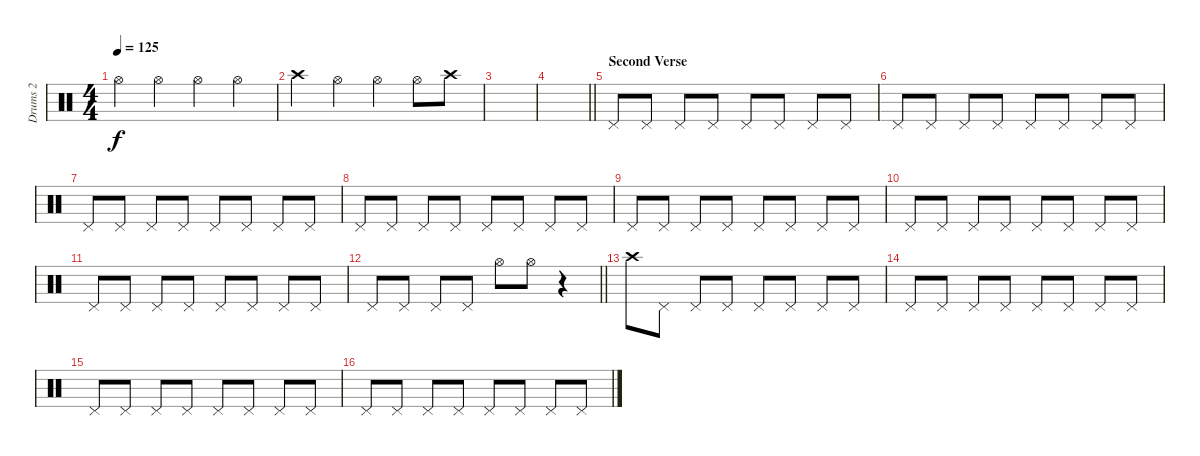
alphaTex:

\track ("Drums 2" "Drums 2") {instrument percussion}
\staff {score}
\articulation defaults
\ts (4 4)
\tempo 125
\clef neutral
\ks c "Hi-Hat (open)".4{dy f} "Hi-Hat (open)".4 "Hi-Hat (open)".4 "Hi-Hat (open)".4
|
"Crash high (hit)".4 "Hi-Hat (open)".4 "Hi-Hat (open)".4 "Hi-Hat (open)".8 "Crash high (hit)".8 |
|
\barLineRight lightlight
|
\section ("" "Second Verse")
"Pedal Hi-Hat (hit)".8 "Pedal Hi-Hat (hit)".8 "Pedal Hi-Hat (hit)".8 "Pedal Hi-Hat (hit)".8 "Pedal Hi-Hat (hit)".8 "Pedal Hi-Hat (hit)".8 "Pedal Hi-Hat (hit)".8 "Pedal Hi-Hat (hit)".8 |
"Pedal Hi-Hat (hit)".8 "Pedal Hi-Hat (hit)".8 "Pedal Hi-Hat (hit)".8 "Pedal Hi-Hat (hit)".8 "Pedal Hi-Hat (hit)".8 "Pedal Hi-Hat (hit)".8 "Pedal Hi-Hat (hit)".8 "Pedal Hi-Hat (hit)".8 |
"Pedal Hi-Hat (hit)".8 "Pedal Hi-Hat (hit)".8 "Pedal Hi-Hat (hit)".8 "Pedal Hi-Hat (hit)".8 "Pedal Hi-Hat (hit)".8 "Pedal Hi-Hat (hit)".8 "Pedal Hi-Hat (hit)".8 "Pedal Hi-Hat (hit)".8 |
"Pedal Hi-Hat (hit)".8 "Pedal Hi-Hat (hit)".8 "Pedal Hi-Hat (hit)".8 "Pedal Hi-Hat (hit)".8 "Pedal Hi-Hat (hit)".8 "Pedal Hi-Hat (hit)".8 "Pedal Hi-Hat (hit)".8 "Pedal Hi-Hat (hit)".8 |
"Pedal Hi-Hat (hit)".8 "Pedal Hi-Hat (hit)".8 "Pedal Hi-Hat (hit)".8 "Pedal Hi-Hat (hit)".8 "Pedal Hi-Hat (hit)".8 "Pedal Hi-Hat (hit)".8 "Pedal Hi-Hat (hit)".8 "Pedal Hi-Hat (hit)".8 |
"Pedal Hi-Hat (hit)".8 "Pedal Hi-Hat (hit)".8 "Pedal Hi-Hat (hit)".8 "Pedal Hi-Hat (hit)".8 "Pedal Hi-Hat (hit)".8 "Pedal Hi-Hat (hit)".8 "Pedal Hi-Hat (hit)".8 "Pedal Hi-Hat (hit)".8 |
"Pedal Hi-Hat (hit)".8 "Pedal Hi-Hat (hit)".8 "Pedal Hi-Hat (hit)".8 "Pedal Hi-Hat (hit)".8 "Pedal Hi-Hat (hit)".8 "Pedal Hi-Hat (hit)".8 "Pedal Hi-Hat (hit)".8 "Pedal Hi-Hat (hit)".8 |
\barLineRight lightlight "Pedal Hi-Hat (hit)".8 "Pedal Hi-Hat (hit)".8 "Pedal Hi-Hat (hit)".8 "Pedal Hi-Hat (hit)".8 "Hi-Hat (open)".8 "Hi-Hat (open)".8
r.4 |
"Crash high (hit)".8 "Pedal Hi-Hat (hit)".8 "Pedal Hi-Hat (hit)".8 "Pedal Hi-Hat (hit)".8 "Pedal Hi-Hat (hit)".8 "Pedal Hi-Hat (hit)".8 "Pedal Hi-Hat (hit)".8 "Pedal Hi-Hat (hit)".8 |
"Pedal Hi-Hat (hit)".8 "Pedal Hi-Hat (hit)".8 "Pedal Hi-Hat (hit)".8 "Pedal Hi-Hat (hit)".8 "Pedal Hi-Hat (hit)".8 "Pedal Hi-Hat (hit)".8 "Pedal Hi-Hat (hit)".8 "Pedal Hi-Hat (hit)".8 |
"Pedal Hi-Hat (hit)".8 "Pedal Hi-Hat (hit)".8 "Pedal Hi-Hat (hit)".8 "Pedal Hi-Hat (hit)".8 "Pedal Hi-Hat (hit)".8 "Pedal Hi-Hat (hit)".8 "Pedal Hi-Hat (hit)".8 "Pedal Hi-Hat (hit)".8 |
"Pedal Hi-Hat (hit)".8 "Pedal Hi-Hat (hit)".8 "Pedal Hi-Hat (hit)".8 "Pedal Hi-Hat (hit)".8 "Pedal Hi-Hat (hit)".8 "Pedal Hi-Hat (hit)".8 "Pedal Hi-Hat (hit)".8 "Pedal Hi-Hat (hit)".8
